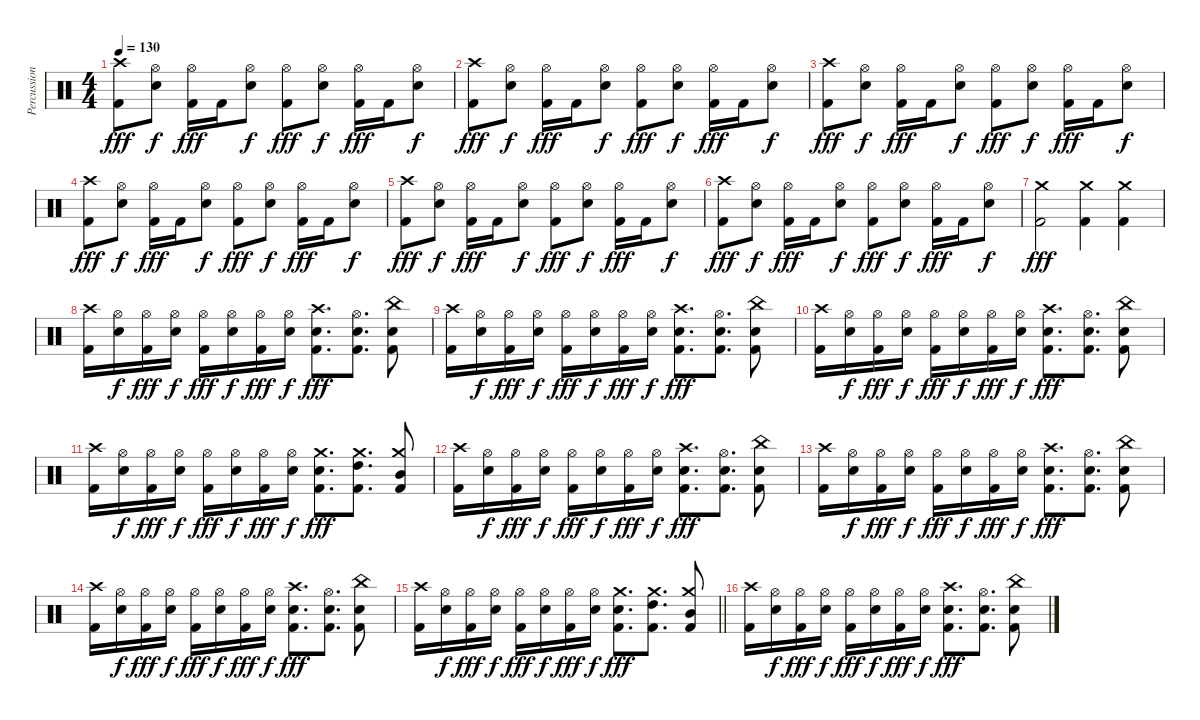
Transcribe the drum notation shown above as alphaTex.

\track ("Percussion" "Percussion") {instrument percussion}
\staff {score}
\articulation defaults
\ts (4 4)
\tempo 130
\clef neutral
\ks c
("Crash high (hit)" "Kick (hit) 2").8{dy fff} ("Hi-Hat (open)" "Electric Snare (hit)").8{dy f} ("Hi-Hat (open)" "Kick (hit) 2").16{dy fff} "Kick (hit) 2".16 ("Hi-Hat (open)" "Electric Snare (hit)").8{dy f} ("Hi-Hat (open)" "Kick (hit) 2").8{dy fff} ("Hi-Hat (open)" "Electric Snare (hit)").8{dy f} ("Hi-Hat (open)" "Kick (hit) 2").16{dy fff} "Kick (hit) 2".16 ("Hi-Hat (open)" "Electric Snare (hit)").8{dy f} |
("Crash high (hit)" "Kick (hit) 2").8{dy fff} ("Hi-Hat (open)" "Electric Snare (hit)").8{dy f} ("Hi-Hat (open)" "Kick (hit) 2").16{dy fff} "Kick (hit) 2".16 ("Hi-Hat (open)" "Electric Snare (hit)").8{dy f} ("Hi-Hat (open)" "Kick (hit) 2").8{dy fff} ("Hi-Hat (open)" "Electric Snare (hit)").8{dy f} ("Hi-Hat (open)" "Kick (hit) 2").16{dy fff} "Kick (hit) 2".16 ("Hi-Hat (open)" "Electric Snare (hit)").8{dy f} |
("Crash high (hit)" "Kick (hit) 2").8{dy fff} ("Hi-Hat (open)" "Electric Snare (hit)").8{dy f} ("Hi-Hat (open)" "Kick (hit) 2").16{dy fff} "Kick (hit) 2".16 ("Hi-Hat (open)" "Electric Snare (hit)").8{dy f} ("Hi-Hat (open)" "Kick (hit) 2").8{dy fff} ("Hi-Hat (open)" "Electric Snare (hit)").8{dy f} ("Hi-Hat (open)" "Kick (hit) 2").16{dy fff} "Kick (hit) 2".16 ("Hi-Hat (open)" "Electric Snare (hit)").8{dy f} |
("Crash high (hit)" "Kick (hit) 2").8{dy fff} ("Hi-Hat (open)" "Electric Snare (hit)").8{dy f} ("Hi-Hat (open)" "Kick (hit) 2").16{dy fff} "Kick (hit) 2".16 ("Hi-Hat (open)" "Electric Snare (hit)").8{dy f} ("Hi-Hat (open)" "Kick (hit) 2").8{dy fff} ("Hi-Hat (open)" "Electric Snare (hit)").8{dy f} ("Hi-Hat (open)" "Kick (hit) 2").16{dy fff} "Kick (hit) 2".16 ("Hi-Hat (open)" "Electric Snare (hit)").8{dy f} |
("Crash high (hit)" "Kick (hit) 2").8{dy fff} ("Hi-Hat (open)" "Electric Snare (hit)").8{dy f} ("Hi-Hat (open)" "Kick (hit) 2").16{dy fff} "Kick (hit) 2".16 ("Hi-Hat (open)" "Electric Snare (hit)").8{dy f} ("Hi-Hat (open)" "Kick (hit) 2").8{dy fff} ("Hi-Hat (open)" "Electric Snare (hit)").8{dy f} ("Hi-Hat (open)" "Kick (hit) 2").16{dy fff} "Kick (hit) 2".16 ("Hi-Hat (open)" "Electric Snare (hit)").8{dy f} |
("Crash high (hit)" "Kick (hit) 2").8{dy fff} ("Hi-Hat (open)" "Electric Snare (hit)").8{dy f} ("Hi-Hat (open)" "Kick (hit) 2").16{dy fff} "Kick (hit) 2".16 ("Hi-Hat (open)" "Electric Snare (hit)").8{dy f} ("Hi-Hat (open)" "Kick (hit) 2").8{dy fff} ("Hi-Hat (open)" "Electric Snare (hit)").8{dy f} ("Hi-Hat (open)" "Kick (hit) 2").16{dy fff} "Kick (hit) 2".16 ("Hi-Hat (open)" "Electric Snare (hit)").8{dy f} |
("Crash medium (hit)" "Kick (hit) 2").2{dy fff} ("Crash medium (hit)" "Kick (hit) 2").4 ("Crash medium (hit)" "Kick (hit) 2").4 |
("Crash high (hit)" "Kick (hit) 2").16 ("Hi-Hat (open)" "Electric Snare (hit)").16{dy f} ("Hi-Hat (open)" "Kick (hit) 2").16{dy fff} ("Hi-Hat (open)" "Electric Snare (hit)").16{dy f} ("Hi-Hat (open)" "Kick (hit) 2").16{dy fff} ("Hi-Hat (open)" "Electric Snare (hit)").16{dy f} ("Hi-Hat (open)" "Kick (hit) 2").16{dy fff} ("Hi-Hat (open)" "Electric Snare (hit)").16{dy f} ("Crash high (hit)" "Electric Snare (hit)" "Kick (hit) 2").8{d dy fff} ("Hi-Hat (open)" "Electric Snare (hit)" "Kick (hit) 2").8{d} ("China (hit)" "Electric Snare (hit)" "Kick (hit) 2").8 |
("Crash high (hit)" "Kick (hit) 2").16 ("Hi-Hat (open)" "Electric Snare (hit)").16{dy f} ("Hi-Hat (open)" "Kick (hit) 2").16{dy fff} ("Hi-Hat (open)" "Electric Snare (hit)").16{dy f} ("Hi-Hat (open)" "Kick (hit) 2").16{dy fff} ("Hi-Hat (open)" "Electric Snare (hit)").16{dy f} ("Hi-Hat (open)" "Kick (hit) 2").16{dy fff} ("Hi-Hat (open)" "Electric Snare (hit)").16{dy f} ("Crash high (hit)" "Electric Snare (hit)" "Kick (hit) 2").8{d dy fff} ("Hi-Hat (open)" "Electric Snare (hit)" "Kick (hit) 2").8{d} ("China (hit)" "Electric Snare (hit)" "Kick (hit) 2").8 |
("Crash high (hit)" "Kick (hit) 2").16 ("Hi-Hat (open)" "Electric Snare (hit)").16{dy f} ("Hi-Hat (open)" "Kick (hit) 2").16{dy fff} ("Hi-Hat (open)" "Electric Snare (hit)").16{dy f} ("Hi-Hat (open)" "Kick (hit) 2").16{dy fff} ("Hi-Hat (open)" "Electric Snare (hit)").16{dy f} ("Hi-Hat (open)" "Kick (hit) 2").16{dy fff} ("Hi-Hat (open)" "Electric Snare (hit)").16{dy f} ("Crash high (hit)" "Electric Snare (hit)" "Kick (hit) 2").8{d dy fff} ("Hi-Hat (open)" "Electric Snare (hit)" "Kick (hit) 2").8{d} ("China (hit)" "Electric Snare (hit)" "Kick (hit) 2").8 |
("Crash high (hit)" "Kick (hit) 2").16 ("Hi-Hat (open)" "Electric Snare (hit)").16{dy f} ("Hi-Hat (open)" "Kick (hit) 2").16{dy fff} ("Hi-Hat (open)" "Electric Snare (hit)").16{dy f} ("Hi-Hat (open)" "Kick (hit) 2").16{dy fff} ("Hi-Hat (open)" "Electric Snare (hit)").16{dy f} ("Hi-Hat (open)" "Kick (hit) 2").16{dy fff} ("Hi-Hat (open)" "Electric Snare (hit)").16{dy f} ("Crash medium (hit)" "Electric Snare (hit)" "Kick (hit) 2").8{d dy fff} ("Crash medium (hit)" "High Tom (hit)" "Kick (hit) 2").8{d} ("Crash medium (hit)" "Mid Tom (hit)" "Kick (hit) 2").8 |
("Crash high (hit)" "Kick (hit) 2").16 ("Hi-Hat (open)" "Electric Snare (hit)").16{dy f} ("Hi-Hat (open)" "Kick (hit) 2").16{dy fff} ("Hi-Hat (open)" "Electric Snare (hit)").16{dy f} ("Hi-Hat (open)" "Kick (hit) 2").16{dy fff} ("Hi-Hat (open)" "Electric Snare (hit)").16{dy f} ("Hi-Hat (open)" "Kick (hit) 2").16{dy fff} ("Hi-Hat (open)" "Electric Snare (hit)").16{dy f} ("Crash high (hit)" "Electric Snare (hit)" "Kick (hit) 2").8{d dy fff} ("Hi-Hat (open)" "Electric Snare (hit)" "Kick (hit) 2").8{d} ("China (hit)" "Electric Snare (hit)" "Kick (hit) 2").8 |
("Crash high (hit)" "Kick (hit) 2").16 ("Hi-Hat (open)" "Electric Snare (hit)").16{dy f} ("Hi-Hat (open)" "Kick (hit) 2").16{dy fff} ("Hi-Hat (open)" "Electric Snare (hit)").16{dy f} ("Hi-Hat (open)" "Kick (hit) 2").16{dy fff} ("Hi-Hat (open)" "Electric Snare (hit)").16{dy f} ("Hi-Hat (open)" "Kick (hit) 2").16{dy fff} ("Hi-Hat (open)" "Electric Snare (hit)").16{dy f} ("Crash high (hit)" "Electric Snare (hit)" "Kick (hit) 2").8{d dy fff} ("Hi-Hat (open)" "Electric Snare (hit)" "Kick (hit) 2").8{d} ("China (hit)" "Electric Snare (hit)" "Kick (hit) 2").8 |
("Crash high (hit)" "Kick (hit) 2").16 ("Hi-Hat (open)" "Electric Snare (hit)").16{dy f} ("Hi-Hat (open)" "Kick (hit) 2").16{dy fff} ("Hi-Hat (open)" "Electric Snare (hit)").16{dy f} ("Hi-Hat (open)" "Kick (hit) 2").16{dy fff} ("Hi-Hat (open)" "Electric Snare (hit)").16{dy f} ("Hi-Hat (open)" "Kick (hit) 2").16{dy fff} ("Hi-Hat (open)" "Electric Snare (hit)").16{dy f} ("Crash high (hit)" "Electric Snare (hit)" "Kick (hit) 2").8{d dy fff} ("Hi-Hat (open)" "Electric Snare (hit)" "Kick (hit) 2").8{d} ("China (hit)" "Electric Snare (hit)" "Kick (hit) 2").8 |
\barLineRight lightlight
("Crash high (hit)" "Kick (hit) 2").16 ("Hi-Hat (open)" "Electric Snare (hit)").16{dy f} ("Hi-Hat (open)" "Kick (hit) 2").16{dy fff} ("Hi-Hat (open)" "Electric Snare (hit)").16{dy f} ("Hi-Hat (open)" "Kick (hit) 2").16{dy fff} ("Hi-Hat (open)" "Electric Snare (hit)").16{dy f} ("Hi-Hat (open)" "Kick (hit) 2").16{dy fff} ("Hi-Hat (open)" "Electric Snare (hit)").16{dy f} ("Crash medium (hit)" "Electric Snare (hit)" "Kick (hit) 2").8{d dy fff} ("Crash medium (hit)" "High Tom (hit)" "Kick (hit) 2").8{d} ("Crash medium (hit)" "Mid Tom (hit)" "Kick (hit) 2").8 |
("Crash high (hit)" "Kick (hit) 2").16 ("Hi-Hat (open)" "Electric Snare (hit)").16{dy f} ("Hi-Hat (open)" "Kick (hit) 2").16{dy fff} ("Hi-Hat (open)" "Electric Snare (hit)").16{dy f} ("Hi-Hat (open)" "Kick (hit) 2").16{dy fff} ("Hi-Hat (open)" "Electric Snare (hit)").16{dy f} ("Hi-Hat (open)" "Kick (hit) 2").16{dy fff} ("Hi-Hat (open)" "Electric Snare (hit)").16{dy f} ("Crash high (hit)" "Electric Snare (hit)" "Kick (hit) 2").8{d dy fff} ("Hi-Hat (open)" "Electric Snare (hit)" "Kick (hit) 2").8{d} ("China (hit)" "Electric Snare (hit)" "Kick (hit) 2").8
